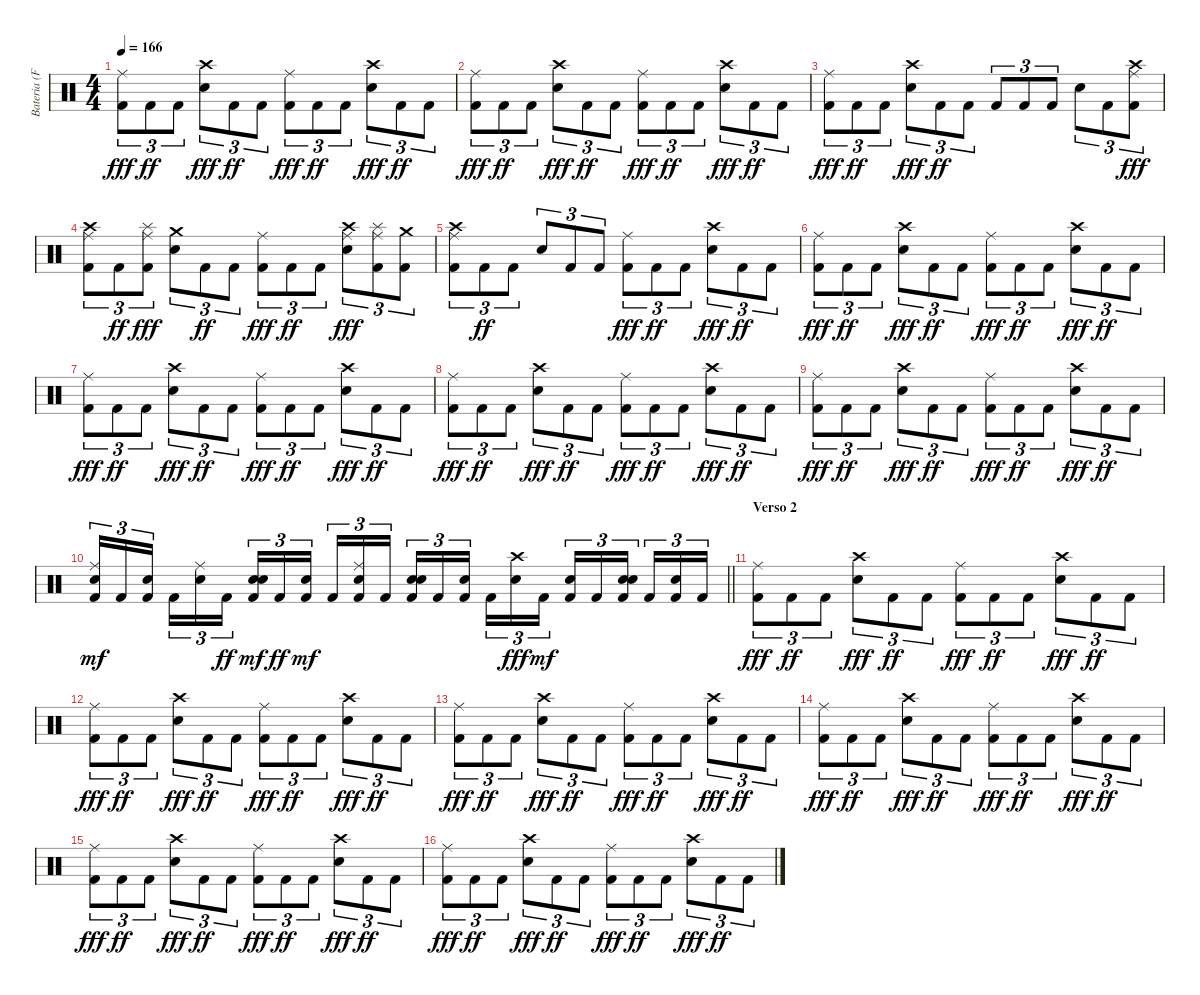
\track ("Bateria (Fernando Scarcella)" "Bateria (F") {instrument percussion}
\staff {score}
\articulation defaults
\ts (4 4)
\tempo 166
\clef neutral
\ks c
("Kick (hit) 2" "Ride (middle)").8{tu (3 2) dy fff} "Kick (hit) 2".8{tu (3 2) dy ff} "Kick (hit) 2".8{tu (3 2)} ("Electric Snare (hit)" "Crash high (hit)").8{tu (3 2) dy fff} "Kick (hit) 2".8{tu (3 2) dy ff} "Kick (hit) 2".8{tu (3 2)} ("Kick (hit) 2" "Ride (middle)").8{tu (3 2) dy fff} "Kick (hit) 2".8{tu (3 2) dy ff} "Kick (hit) 2".8{tu (3 2)} ("Electric Snare (hit)" "Crash high (hit)").8{tu (3 2) dy fff} "Kick (hit) 2".8{tu (3 2) dy ff} "Kick (hit) 2".8{tu (3 2)} |
("Kick (hit) 2" "Ride (middle)").8{tu (3 2) dy fff} "Kick (hit) 2".8{tu (3 2) dy ff} "Kick (hit) 2".8{tu (3 2)} ("Electric Snare (hit)" "Crash high (hit)").8{tu (3 2) dy fff} "Kick (hit) 2".8{tu (3 2) dy ff} "Kick (hit) 2".8{tu (3 2)} ("Kick (hit) 2" "Ride (middle)").8{tu (3 2) dy fff} "Kick (hit) 2".8{tu (3 2) dy ff} "Kick (hit) 2".8{tu (3 2)} ("Electric Snare (hit)" "Crash high (hit)").8{tu (3 2) dy fff} "Kick (hit) 2".8{tu (3 2) dy ff} "Kick (hit) 2".8{tu (3 2)} |
("Kick (hit) 2" "Ride (middle)").8{tu (3 2) dy fff} "Kick (hit) 2".8{tu (3 2) dy ff} "Kick (hit) 2".8{tu (3 2)} ("Electric Snare (hit)" "Crash high (hit)").8{tu (3 2) dy fff} "Kick (hit) 2".8{tu (3 2) dy ff} "Kick (hit) 2".8{tu (3 2)} "Kick (hit) 2".8{tu (3 2)} "Kick (hit) 2".8{tu (3 2)} "Kick (hit) 2".8{tu (3 2)} "Electric Snare (hit)".8{tu (3 2)} "Kick (hit) 2".8{tu (3 2)} ("Kick (hit) 2" "Ride (middle)" "Crash high (hit)").8{tu (3 2) dy fff} |
("Kick (hit) 2" "Ride (middle)" "Crash high (hit)").8{tu (3 2)} "Kick (hit) 2".8{tu (3 2) dy ff} ("Kick (hit) 2" "Ride (middle)" "Splash (hit)").8{tu (3 2) dy fff} ("Electric Snare (hit)" "Crash medium (hit)").8{tu (3 2)} "Kick (hit) 2".8{tu (3 2) dy ff} "Kick (hit) 2".8{tu (3 2)} ("Kick (hit) 2" "Ride (middle)").8{tu (3 2) dy fff} "Kick (hit) 2".8{tu (3 2) dy ff} "Kick (hit) 2".8{tu (3 2)} ("Electric Snare (hit)" "Ride (middle)" "Crash high (hit)").8{tu (3 2) dy fff} ("Kick (hit) 2" "Ride (middle)" "Splash (hit)").8{tu (3 2)} ("Kick (hit) 2" "Crash medium (hit)").8{tu (3 2)} |
("Kick (hit) 2" "Ride (middle)" "Crash high (hit)").8{tu (3 2)} "Kick (hit) 2".8{tu (3 2) dy ff} "Kick (hit) 2".8{tu (3 2)} "Electric Snare (hit)".8{tu (3 2)} "Kick (hit) 2".8{tu (3 2)} "Kick (hit) 2".8{tu (3 2)} ("Kick (hit) 2" "Ride (middle)").8{tu (3 2) dy fff} "Kick (hit) 2".8{tu (3 2) dy ff} "Kick (hit) 2".8{tu (3 2)} ("Electric Snare (hit)" "Crash high (hit)").8{tu (3 2) dy fff} "Kick (hit) 2".8{tu (3 2) dy ff} "Kick (hit) 2".8{tu (3 2)} |
("Kick (hit) 2" "Ride (middle)").8{tu (3 2) dy fff} "Kick (hit) 2".8{tu (3 2) dy ff} "Kick (hit) 2".8{tu (3 2)} ("Electric Snare (hit)" "Crash high (hit)").8{tu (3 2) dy fff} "Kick (hit) 2".8{tu (3 2) dy ff} "Kick (hit) 2".8{tu (3 2)} ("Kick (hit) 2" "Ride (middle)").8{tu (3 2) dy fff} "Kick (hit) 2".8{tu (3 2) dy ff} "Kick (hit) 2".8{tu (3 2)} ("Electric Snare (hit)" "Crash high (hit)").8{tu (3 2) dy fff} "Kick (hit) 2".8{tu (3 2) dy ff} "Kick (hit) 2".8{tu (3 2)} |
("Kick (hit) 2" "Ride (middle)").8{tu (3 2) dy fff} "Kick (hit) 2".8{tu (3 2) dy ff} "Kick (hit) 2".8{tu (3 2)} ("Electric Snare (hit)" "Crash high (hit)").8{tu (3 2) dy fff} "Kick (hit) 2".8{tu (3 2) dy ff} "Kick (hit) 2".8{tu (3 2)} ("Kick (hit) 2" "Ride (middle)").8{tu (3 2) dy fff} "Kick (hit) 2".8{tu (3 2) dy ff} "Kick (hit) 2".8{tu (3 2)} ("Electric Snare (hit)" "Crash high (hit)").8{tu (3 2) dy fff} "Kick (hit) 2".8{tu (3 2) dy ff} "Kick (hit) 2".8{tu (3 2)} |
("Kick (hit) 2" "Ride (middle)").8{tu (3 2) dy fff} "Kick (hit) 2".8{tu (3 2) dy ff} "Kick (hit) 2".8{tu (3 2)} ("Electric Snare (hit)" "Crash high (hit)").8{tu (3 2) dy fff} "Kick (hit) 2".8{tu (3 2) dy ff} "Kick (hit) 2".8{tu (3 2)} ("Kick (hit) 2" "Ride (middle)").8{tu (3 2) dy fff} "Kick (hit) 2".8{tu (3 2) dy ff} "Kick (hit) 2".8{tu (3 2)} ("Electric Snare (hit)" "Crash high (hit)").8{tu (3 2) dy fff} "Kick (hit) 2".8{tu (3 2) dy ff} "Kick (hit) 2".8{tu (3 2)} |
("Kick (hit) 2" "Ride (middle)").8{tu (3 2) dy fff} "Kick (hit) 2".8{tu (3 2) dy ff} "Kick (hit) 2".8{tu (3 2)} ("Electric Snare (hit)" "Crash high (hit)").8{tu (3 2) dy fff} "Kick (hit) 2".8{tu (3 2) dy ff} "Kick (hit) 2".8{tu (3 2)} ("Kick (hit) 2" "Ride (middle)").8{tu (3 2) dy fff} "Kick (hit) 2".8{tu (3 2) dy ff} "Kick (hit) 2".8{tu (3 2)} ("Electric Snare (hit)" "Crash high (hit)").8{tu (3 2) dy fff} "Kick (hit) 2".8{tu (3 2) dy ff} "Kick (hit) 2".8{tu (3 2)} |
\barLineRight lightlight
("Kick (hit) 2" "Ride (middle)" "Snare (hit) 2").16{tu (3 2) dy mf} "Kick (hit) 2".16{tu (3 2)} ("Kick (hit) 2" "Electric Snare (hit)").16{tu (3 2) beam splitsecondary} "Kick (hit) 2".16{tu (3 2)} ("Ride (middle)" "Electric Snare (hit)").16{tu (3 2)} "Kick (hit) 2".16{tu (3 2) dy ff} ("Kick (hit) 2" "Electric Snare (hit)" "Snare (hit) 2").16{tu (3 2) dy mf} "Kick (hit) 2".16{tu (3 2) dy ff} ("Kick (hit) 2" "Electric Snare (hit)").16{tu (3 2) dy mf beam splitsecondary} "Kick (hit) 2".16{tu (3 2)} ("Kick (hit) 2" "Ride (middle)" "Electric Snare (hit)").16{tu (3 2)} "Kick (hit) 2".16{tu (3 2)} ("Kick (hit) 2" "Electric Snare (hit)" "Snare (hit) 2").16{tu (3 2)} "Kick (hit) 2".16{tu (3 2)} ("Kick (hit) 2" "Electric Snare (hit)").16{tu (3 2) beam splitsecondary} "Kick (hit) 2".16{tu (3 2)} ("Electric Snare (hit)" "Crash high (hit)").16{tu (3 2) dy fff} "Kick (hit) 2".16{tu (3 2) dy mf} ("Kick (hit) 2" "Electric Snare (hit)").16{tu (3 2)} "Kick (hit) 2".16{tu (3 2)} ("Kick (hit) 2" "Electric Snare (hit)" "Snare (hit) 2").16{tu (3 2) beam splitsecondary} "Kick (hit) 2".16{tu (3 2)} ("Kick (hit) 2" "Electric Snare (hit)").16{tu (3 2)} "Kick (hit) 2".16{tu (3 2)} |
\section ("" "Verso 2")
("Kick (hit) 2" "Ride (middle)").8{tu (3 2) dy fff} "Kick (hit) 2".8{tu (3 2) dy ff} "Kick (hit) 2".8{tu (3 2)} ("Electric Snare (hit)" "Crash high (hit)").8{tu (3 2) dy fff} "Kick (hit) 2".8{tu (3 2) dy ff} "Kick (hit) 2".8{tu (3 2)} ("Kick (hit) 2" "Ride (middle)").8{tu (3 2) dy fff} "Kick (hit) 2".8{tu (3 2) dy ff} "Kick (hit) 2".8{tu (3 2)} ("Electric Snare (hit)" "Crash high (hit)").8{tu (3 2) dy fff} "Kick (hit) 2".8{tu (3 2) dy ff} "Kick (hit) 2".8{tu (3 2)} |
("Kick (hit) 2" "Ride (middle)").8{tu (3 2) dy fff} "Kick (hit) 2".8{tu (3 2) dy ff} "Kick (hit) 2".8{tu (3 2)} ("Electric Snare (hit)" "Crash high (hit)").8{tu (3 2) dy fff} "Kick (hit) 2".8{tu (3 2) dy ff} "Kick (hit) 2".8{tu (3 2)} ("Kick (hit) 2" "Ride (middle)").8{tu (3 2) dy fff} "Kick (hit) 2".8{tu (3 2) dy ff} "Kick (hit) 2".8{tu (3 2)} ("Electric Snare (hit)" "Crash high (hit)").8{tu (3 2) dy fff} "Kick (hit) 2".8{tu (3 2) dy ff} "Kick (hit) 2".8{tu (3 2)} |
("Kick (hit) 2" "Ride (middle)").8{tu (3 2) dy fff} "Kick (hit) 2".8{tu (3 2) dy ff} "Kick (hit) 2".8{tu (3 2)} ("Electric Snare (hit)" "Crash high (hit)").8{tu (3 2) dy fff} "Kick (hit) 2".8{tu (3 2) dy ff} "Kick (hit) 2".8{tu (3 2)} ("Kick (hit) 2" "Ride (middle)").8{tu (3 2) dy fff} "Kick (hit) 2".8{tu (3 2) dy ff} "Kick (hit) 2".8{tu (3 2)} ("Electric Snare (hit)" "Crash high (hit)").8{tu (3 2) dy fff} "Kick (hit) 2".8{tu (3 2) dy ff} "Kick (hit) 2".8{tu (3 2)} |
("Kick (hit) 2" "Ride (middle)").8{tu (3 2) dy fff} "Kick (hit) 2".8{tu (3 2) dy ff} "Kick (hit) 2".8{tu (3 2)} ("Electric Snare (hit)" "Crash high (hit)").8{tu (3 2) dy fff} "Kick (hit) 2".8{tu (3 2) dy ff} "Kick (hit) 2".8{tu (3 2)} ("Kick (hit) 2" "Ride (middle)").8{tu (3 2) dy fff} "Kick (hit) 2".8{tu (3 2) dy ff} "Kick (hit) 2".8{tu (3 2)} ("Electric Snare (hit)" "Crash high (hit)").8{tu (3 2) dy fff} "Kick (hit) 2".8{tu (3 2) dy ff} "Kick (hit) 2".8{tu (3 2)} |
("Kick (hit) 2" "Ride (middle)").8{tu (3 2) dy fff} "Kick (hit) 2".8{tu (3 2) dy ff} "Kick (hit) 2".8{tu (3 2)} ("Electric Snare (hit)" "Crash high (hit)").8{tu (3 2) dy fff} "Kick (hit) 2".8{tu (3 2) dy ff} "Kick (hit) 2".8{tu (3 2)} ("Kick (hit) 2" "Ride (middle)").8{tu (3 2) dy fff} "Kick (hit) 2".8{tu (3 2) dy ff} "Kick (hit) 2".8{tu (3 2)} ("Electric Snare (hit)" "Crash high (hit)").8{tu (3 2) dy fff} "Kick (hit) 2".8{tu (3 2) dy ff} "Kick (hit) 2".8{tu (3 2)} |
("Kick (hit) 2" "Ride (middle)").8{tu (3 2) dy fff} "Kick (hit) 2".8{tu (3 2) dy ff} "Kick (hit) 2".8{tu (3 2)} ("Electric Snare (hit)" "Crash high (hit)").8{tu (3 2) dy fff} "Kick (hit) 2".8{tu (3 2) dy ff} "Kick (hit) 2".8{tu (3 2)} ("Kick (hit) 2" "Ride (middle)").8{tu (3 2) dy fff} "Kick (hit) 2".8{tu (3 2) dy ff} "Kick (hit) 2".8{tu (3 2)} ("Electric Snare (hit)" "Crash high (hit)").8{tu (3 2) dy fff} "Kick (hit) 2".8{tu (3 2) dy ff} "Kick (hit) 2".8{tu (3 2)}
